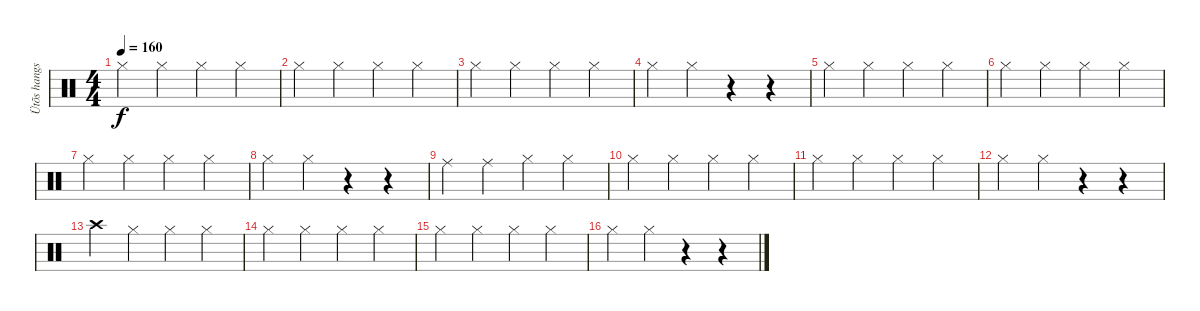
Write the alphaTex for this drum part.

\track ("Ütõs hangszer" "Ütõs hangs") {instrument percussion}
\staff {score}
\articulation defaults
\ts (4 4)
\tempo 160
\clef neutral
\ks c "Hi-Hat (closed)".4{dy f} "Hi-Hat (closed)".4 "Hi-Hat (closed)".4 "Hi-Hat (closed)".4
|
"Hi-Hat (closed)".4 "Hi-Hat (closed)".4 "Hi-Hat (closed)".4 "Hi-Hat (closed)".4 |
"Hi-Hat (closed)".4 "Hi-Hat (closed)".4 "Hi-Hat (closed)".4 "Hi-Hat (closed)".4 |
"Hi-Hat (closed)".4 "Hi-Hat (closed)".4 r.4 r.4 |
"Hi-Hat (closed)".4 "Hi-Hat (closed)".4 "Hi-Hat (closed)".4 "Hi-Hat (closed)".4 |
"Hi-Hat (closed)".4 "Hi-Hat (closed)".4 "Hi-Hat (closed)".4 "Hi-Hat (closed)".4 |
"Hi-Hat (closed)".4 "Hi-Hat (closed)".4 "Hi-Hat (closed)".4 "Hi-Hat (closed)".4 |
"Hi-Hat (closed)".4 "Hi-Hat (closed)".4 r.4 r.4 |
"Ride (middle)".4 "Ride (middle)".4 "Hi-Hat (closed)".4 "Hi-Hat (closed)".4 |
"Hi-Hat (closed)".4 "Hi-Hat (closed)".4 "Hi-Hat (closed)".4 "Hi-Hat (closed)".4 |
"Hi-Hat (closed)".4 "Hi-Hat (closed)".4 "Hi-Hat (closed)".4 "Hi-Hat (closed)".4 |
"Hi-Hat (closed)".4 "Hi-Hat (closed)".4 r.4 r.4 |
"Crash high (hit)".4 "Hi-Hat (closed)".4 "Hi-Hat (closed)".4 "Hi-Hat (closed)".4 |
"Hi-Hat (closed)".4 "Hi-Hat (closed)".4 "Hi-Hat (closed)".4 "Hi-Hat (closed)".4 |
"Hi-Hat (closed)".4 "Hi-Hat (closed)".4 "Hi-Hat (closed)".4 "Hi-Hat (closed)".4 |
"Hi-Hat (closed)".4 "Hi-Hat (closed)".4 r.4 r.4
